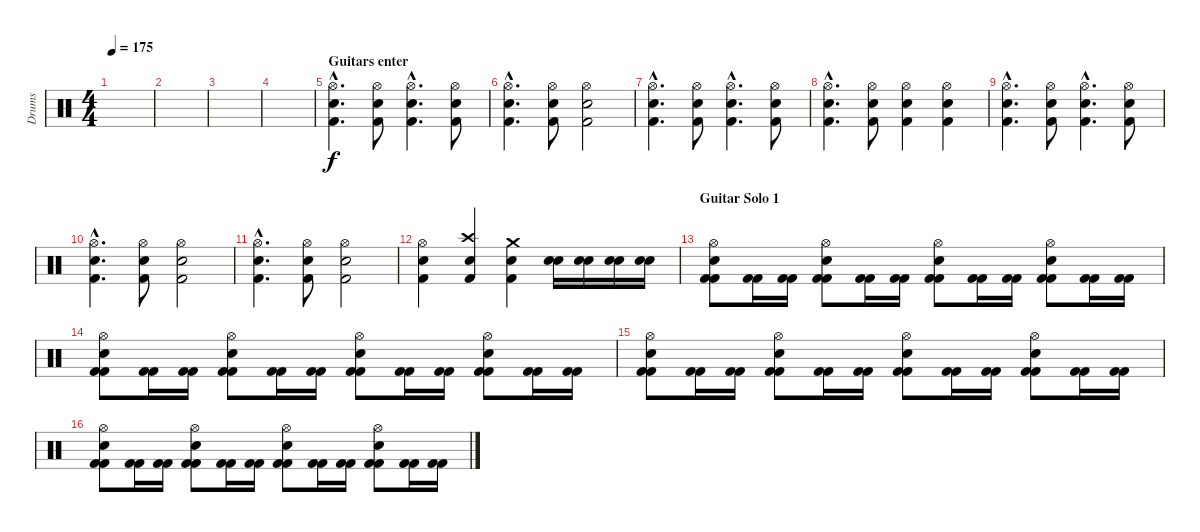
\track ("Drums" "Drums") {instrument percussion}
\staff {score}
\articulation defaults
\ts (4 4)
\tempo 175
\clef neutral
\ks c
|
|
|
|
\section ("" "Guitars enter")
("Hi-Hat (open)"{hac} "Snare (hit) 2"{hac} "Kick (hit) 2"{hac}).4{d} ("Hi-Hat (open)" "Snare (hit) 2" "Kick (hit) 2").8 ("Hi-Hat (open)"{hac} "Snare (hit) 2"{hac} "Kick (hit) 2"{hac}).4{d} ("Hi-Hat (open)" "Snare (hit) 2" "Kick (hit) 2").8 |
("Hi-Hat (open)"{hac} "Snare (hit) 2"{hac} "Kick (hit) 2"{hac}).4{d} ("Hi-Hat (open)" "Snare (hit) 2" "Kick (hit) 2").8 ("Hi-Hat (open)" "Snare (hit) 2" "Kick (hit) 2").2 |
("Hi-Hat (open)"{hac} "Snare (hit) 2"{hac} "Kick (hit) 2"{hac}).4{d} ("Hi-Hat (open)" "Snare (hit) 2" "Kick (hit) 2").8 ("Hi-Hat (open)"{hac} "Snare (hit) 2"{hac} "Kick (hit) 2"{hac}).4{d} ("Hi-Hat (open)" "Snare (hit) 2" "Kick (hit) 2").8 |
("Hi-Hat (open)"{hac} "Snare (hit) 2"{hac} "Kick (hit) 2"{hac}).4{d} ("Hi-Hat (open)" "Snare (hit) 2" "Kick (hit) 2").8 ("Hi-Hat (open)" "Snare (hit) 2" "Kick (hit) 2").4 ("Hi-Hat (open)" "Snare (hit) 2" "Kick (hit) 2").4 |
("Hi-Hat (open)"{hac} "Snare (hit) 2"{hac} "Kick (hit) 2"{hac}).4{d} ("Hi-Hat (open)" "Snare (hit) 2" "Kick (hit) 2").8 ("Hi-Hat (open)"{hac} "Snare (hit) 2"{hac} "Kick (hit) 2"{hac}).4{d} ("Hi-Hat (open)" "Snare (hit) 2" "Kick (hit) 2").8 |
("Hi-Hat (open)"{hac} "Snare (hit) 2"{hac} "Kick (hit) 2"{hac}).4{d} ("Hi-Hat (open)" "Snare (hit) 2" "Kick (hit) 2").8 ("Hi-Hat (open)" "Snare (hit) 2" "Kick (hit) 2").2 |
("Hi-Hat (open)"{hac} "Snare (hit) 2"{hac} "Kick (hit) 2"{hac}).4{d} ("Hi-Hat (open)" "Snare (hit) 2" "Kick (hit) 2").8 ("Hi-Hat (open)" "Snare (hit) 2" "Kick (hit) 2").2 |
("Hi-Hat (open)" "Snare (hit) 2" "Kick (hit) 2").4 ("Crash high (hit)" "Electric Snare (hit)" "Kick (hit) 2").4 ("Crash medium (hit)" "Snare (hit) 2" "Kick (hit) 2").4 ("Snare (hit) 2" "Snare (hit) 2").16 ("Snare (hit) 2" "Snare (hit) 2").16 ("Snare (hit) 2" "Snare (hit) 2").16 ("Snare (hit) 2" "Snare (hit) 2").16 |
\section ("" "Guitar Solo 1")
("Hi-Hat (open)" "Snare (hit) 2" "Kick (hit) 2" "Kick (hit) 2").8 ("Kick (hit) 2" "Kick (hit) 2").16 ("Kick (hit) 2" "Kick (hit) 2").16 ("Hi-Hat (open)" "Snare (hit) 2" "Kick (hit) 2" "Kick (hit) 2").8 ("Kick (hit) 2" "Kick (hit) 2").16 ("Kick (hit) 2" "Kick (hit) 2").16 ("Hi-Hat (open)" "Snare (hit) 2" "Kick (hit) 2" "Kick (hit) 2").8 ("Kick (hit) 2" "Kick (hit) 2").16 ("Kick (hit) 2" "Kick (hit) 2").16 ("Hi-Hat (open)" "Snare (hit) 2" "Kick (hit) 2" "Kick (hit) 2").8 ("Kick (hit) 2" "Kick (hit) 2").16 ("Kick (hit) 2" "Kick (hit) 2").16 |
("Hi-Hat (open)" "Snare (hit) 2" "Kick (hit) 2" "Kick (hit) 2").8 ("Kick (hit) 2" "Kick (hit) 2").16 ("Kick (hit) 2" "Kick (hit) 2").16 ("Hi-Hat (open)" "Snare (hit) 2" "Kick (hit) 2" "Kick (hit) 2").8 ("Kick (hit) 2" "Kick (hit) 2").16 ("Kick (hit) 2" "Kick (hit) 2").16 ("Hi-Hat (open)" "Snare (hit) 2" "Kick (hit) 2" "Kick (hit) 2").8 ("Kick (hit) 2" "Kick (hit) 2").16 ("Kick (hit) 2" "Kick (hit) 2").16 ("Hi-Hat (open)" "Snare (hit) 2" "Kick (hit) 2" "Kick (hit) 2").8 ("Kick (hit) 2" "Kick (hit) 2").16 ("Kick (hit) 2" "Kick (hit) 2").16 |
("Hi-Hat (open)" "Snare (hit) 2" "Kick (hit) 2" "Kick (hit) 2").8 ("Kick (hit) 2" "Kick (hit) 2").16 ("Kick (hit) 2" "Kick (hit) 2").16 ("Hi-Hat (open)" "Snare (hit) 2" "Kick (hit) 2" "Kick (hit) 2").8 ("Kick (hit) 2" "Kick (hit) 2").16 ("Kick (hit) 2" "Kick (hit) 2").16 ("Hi-Hat (open)" "Snare (hit) 2" "Kick (hit) 2" "Kick (hit) 2").8 ("Kick (hit) 2" "Kick (hit) 2").16 ("Kick (hit) 2" "Kick (hit) 2").16 ("Hi-Hat (open)" "Snare (hit) 2" "Kick (hit) 2" "Kick (hit) 2").8 ("Kick (hit) 2" "Kick (hit) 2").16 ("Kick (hit) 2" "Kick (hit) 2").16 |
("Hi-Hat (open)" "Snare (hit) 2" "Kick (hit) 2" "Kick (hit) 2").8 ("Kick (hit) 2" "Kick (hit) 2").16 ("Kick (hit) 2" "Kick (hit) 2").16 ("Hi-Hat (open)" "Snare (hit) 2" "Kick (hit) 2" "Kick (hit) 2").8 ("Kick (hit) 2" "Kick (hit) 2").16 ("Kick (hit) 2" "Kick (hit) 2").16 ("Hi-Hat (open)" "Snare (hit) 2" "Kick (hit) 2" "Kick (hit) 2").8 ("Kick (hit) 2" "Kick (hit) 2").16 ("Kick (hit) 2" "Kick (hit) 2").16 ("Hi-Hat (open)" "Snare (hit) 2" "Kick (hit) 2" "Kick (hit) 2").8 ("Kick (hit) 2" "Kick (hit) 2").16 ("Kick (hit) 2" "Kick (hit) 2").16
